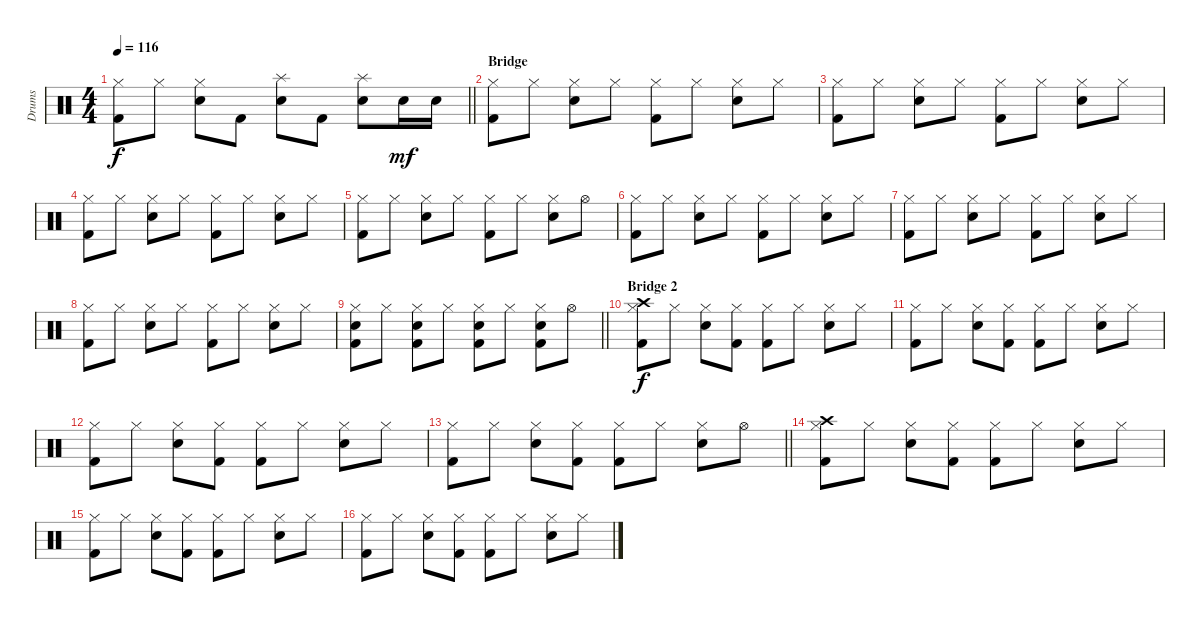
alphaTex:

\track ("Drums" "Drums") {instrument percussion}
\staff {score}
\articulation defaults
\ts (4 4)
\tempo 116
\clef neutral
\barLineRight lightlight
\ks c
("Kick (hit) 2" "Hi-Hat (closed)").8{dy f} "Hi-Hat (closed)".8 ("Electric Snare (hit)" "Hi-Hat (closed)").8 "Kick (hit) 2".8 ("Electric Snare (hit)" "Splash (hit)").8 "Kick (hit) 2".8 ("Electric Snare (hit)" "Splash (hit)").8 "Electric Snare (hit)".16{dy mf} "Electric Snare (hit)".16 |
\section ("" "Bridge")
("Kick (hit) 2" "Hi-Hat (closed)").8 "Hi-Hat (closed)".8 ("Electric Snare (hit)" "Hi-Hat (closed)").8 "Hi-Hat (closed)".8 ("Kick (hit) 2" "Hi-Hat (closed)").8 "Hi-Hat (closed)".8 ("Electric Snare (hit)" "Hi-Hat (closed)").8 "Hi-Hat (closed)".8 |
("Kick (hit) 2" "Hi-Hat (closed)").8 "Hi-Hat (closed)".8 ("Electric Snare (hit)" "Hi-Hat (closed)").8 "Hi-Hat (closed)".8 ("Kick (hit) 2" "Hi-Hat (closed)").8 "Hi-Hat (closed)".8 ("Electric Snare (hit)" "Hi-Hat (closed)").8 "Hi-Hat (closed)".8 |
("Kick (hit) 2" "Hi-Hat (closed)").8 "Hi-Hat (closed)".8 ("Electric Snare (hit)" "Hi-Hat (closed)").8 "Hi-Hat (closed)".8 ("Kick (hit) 2" "Hi-Hat (closed)").8 "Hi-Hat (closed)".8 ("Electric Snare (hit)" "Hi-Hat (closed)").8 "Hi-Hat (closed)".8 |
("Kick (hit) 2" "Hi-Hat (closed)").8 "Hi-Hat (closed)".8 ("Electric Snare (hit)" "Hi-Hat (closed)").8 "Hi-Hat (closed)".8 ("Kick (hit) 2" "Hi-Hat (closed)").8 "Hi-Hat (closed)".8 ("Electric Snare (hit)" "Hi-Hat (closed)").8 "Hi-Hat (open)".8 |
("Kick (hit) 2" "Hi-Hat (closed)").8 "Hi-Hat (closed)".8 ("Electric Snare (hit)" "Hi-Hat (closed)").8 "Hi-Hat (closed)".8 ("Kick (hit) 2" "Hi-Hat (closed)").8 "Hi-Hat (closed)".8 ("Electric Snare (hit)" "Hi-Hat (closed)").8 "Hi-Hat (closed)".8 |
("Kick (hit) 2" "Hi-Hat (closed)").8 "Hi-Hat (closed)".8 ("Electric Snare (hit)" "Hi-Hat (closed)").8 "Hi-Hat (closed)".8 ("Kick (hit) 2" "Hi-Hat (closed)").8 "Hi-Hat (closed)".8 ("Electric Snare (hit)" "Hi-Hat (closed)").8 "Hi-Hat (closed)".8 |
("Kick (hit) 2" "Hi-Hat (closed)").8 "Hi-Hat (closed)".8 ("Electric Snare (hit)" "Hi-Hat (closed)").8 "Hi-Hat (closed)".8 ("Kick (hit) 2" "Hi-Hat (closed)").8 "Hi-Hat (closed)".8 ("Electric Snare (hit)" "Hi-Hat (closed)").8 "Hi-Hat (closed)".8 |
\barLineRight lightlight
("Electric Snare (hit)" "Kick (hit) 2" "Hi-Hat (closed)").8 "Hi-Hat (closed)".8 ("Electric Snare (hit)" "Kick (hit) 2" "Hi-Hat (closed)").8 "Hi-Hat (closed)".8 ("Electric Snare (hit)" "Kick (hit) 2" "Hi-Hat (closed)").8 "Hi-Hat (closed)".8 ("Electric Snare (hit)" "Kick (hit) 2" "Hi-Hat (closed)").8 "Hi-Hat (open)".8 |
\section ("" "Bridge 2")
("Crash high (hit)" "Kick (hit) 2" "Hi-Hat (closed)").8{dy f} "Hi-Hat (closed)".8 ("Electric Snare (hit)" "Hi-Hat (closed)").8 ("Kick (hit) 2" "Hi-Hat (closed)").8 ("Kick (hit) 2" "Hi-Hat (closed)").8 "Hi-Hat (closed)".8 ("Electric Snare (hit)" "Hi-Hat (closed)").8 "Hi-Hat (closed)".8 |
("Kick (hit) 2" "Hi-Hat (closed)").8 "Hi-Hat (closed)".8 ("Electric Snare (hit)" "Hi-Hat (closed)").8 ("Kick (hit) 2" "Hi-Hat (closed)").8 ("Kick (hit) 2" "Hi-Hat (closed)").8 "Hi-Hat (closed)".8 ("Electric Snare (hit)" "Hi-Hat (closed)").8 "Hi-Hat (closed)".8 |
("Kick (hit) 2" "Hi-Hat (closed)").8 "Hi-Hat (closed)".8 ("Electric Snare (hit)" "Hi-Hat (closed)").8 ("Kick (hit) 2" "Hi-Hat (closed)").8 ("Kick (hit) 2" "Hi-Hat (closed)").8 "Hi-Hat (closed)".8 ("Electric Snare (hit)" "Hi-Hat (closed)").8 "Hi-Hat (closed)".8 |
\barLineRight lightlight
("Kick (hit) 2" "Hi-Hat (closed)").8 "Hi-Hat (closed)".8 ("Electric Snare (hit)" "Hi-Hat (closed)").8 ("Kick (hit) 2" "Hi-Hat (closed)").8 ("Kick (hit) 2" "Hi-Hat (closed)").8 "Hi-Hat (closed)".8 ("Electric Snare (hit)" "Hi-Hat (closed)").8 "Hi-Hat (open)".8 |
("Crash high (hit)" "Kick (hit) 2" "Hi-Hat (closed)").8 "Hi-Hat (closed)".8 ("Electric Snare (hit)" "Hi-Hat (closed)").8 ("Kick (hit) 2" "Hi-Hat (closed)").8 ("Kick (hit) 2" "Hi-Hat (closed)").8 "Hi-Hat (closed)".8 ("Electric Snare (hit)" "Hi-Hat (closed)").8 "Hi-Hat (closed)".8 |
("Kick (hit) 2" "Hi-Hat (closed)").8 "Hi-Hat (closed)".8 ("Electric Snare (hit)" "Hi-Hat (closed)").8 ("Kick (hit) 2" "Hi-Hat (closed)").8 ("Kick (hit) 2" "Hi-Hat (closed)").8 "Hi-Hat (closed)".8 ("Electric Snare (hit)" "Hi-Hat (closed)").8 "Hi-Hat (closed)".8 |
("Kick (hit) 2" "Hi-Hat (closed)").8 "Hi-Hat (closed)".8 ("Electric Snare (hit)" "Hi-Hat (closed)").8 ("Kick (hit) 2" "Hi-Hat (closed)").8 ("Kick (hit) 2" "Hi-Hat (closed)").8 "Hi-Hat (closed)".8 ("Electric Snare (hit)" "Hi-Hat (closed)").8 "Hi-Hat (closed)".8
